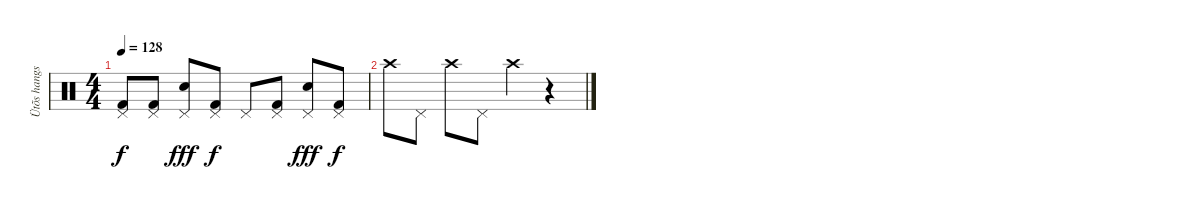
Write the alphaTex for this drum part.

\track ("Ütõs hangszer" "Ütõs hangs") {instrument percussion}
\staff {score}
\articulation defaults
\ts (4 4)
\tempo 128
\clef neutral
\ks c
("Kick (hit) 2" "Pedal Hi-Hat (hit)").8{dy f} ("Kick (hit) 2" "Pedal Hi-Hat (hit)").8 ("Electric Snare (hit)" "Pedal Hi-Hat (hit)").8{dy fff} ("Kick (hit) 2" "Pedal Hi-Hat (hit)").8{dy f} "Pedal Hi-Hat (hit)".8 ("Kick (hit) 2" "Pedal Hi-Hat (hit)").8 ("Electric Snare (hit)" "Pedal Hi-Hat (hit)").8{dy fff} ("Kick (hit) 2" "Pedal Hi-Hat (hit)").8{dy f} |
"Crash high (hit)".8 "Pedal Hi-Hat (hit)".8 "Crash high (hit)".8 "Pedal Hi-Hat (hit)".8 "Crash high (hit)".4 r.4
